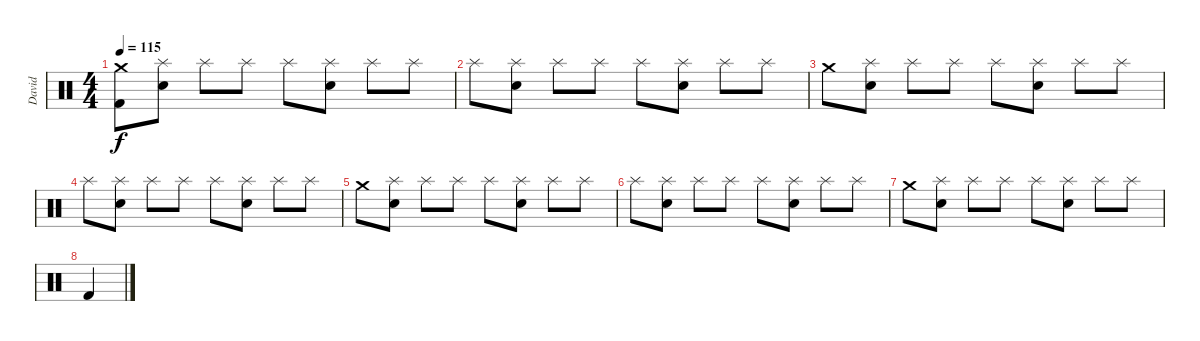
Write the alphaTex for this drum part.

\track ("David" "David") {instrument percussion}
\staff {score}
\articulation defaults
\ts (4 4)
\tempo 115
\clef neutral
\ks c
("Crash medium (hit)" "Kick (hit) 2").8{dy f} ("Splash (hit)" "Electric Snare (hit)").8 "Splash (hit)".8 "Splash (hit)".8 "Splash (hit)".8 ("Splash (hit)" "Electric Snare (hit)").8 "Splash (hit)".8 "Splash (hit)".8 |
"Splash (hit)".8 ("Splash (hit)" "Electric Snare (hit)").8 "Splash (hit)".8 "Splash (hit)".8 "Splash (hit)".8 ("Splash (hit)" "Electric Snare (hit)").8 "Splash (hit)".8 "Splash (hit)".8 |
"Crash medium (hit)".8 ("Splash (hit)" "Electric Snare (hit)").8 "Splash (hit)".8 "Splash (hit)".8 "Splash (hit)".8 ("Splash (hit)" "Electric Snare (hit)").8 "Splash (hit)".8 "Splash (hit)".8 |
"Splash (hit)".8 ("Splash (hit)" "Electric Snare (hit)").8 "Splash (hit)".8 "Splash (hit)".8 "Splash (hit)".8 ("Splash (hit)" "Electric Snare (hit)").8 "Splash (hit)".8 "Splash (hit)".8 |
"Crash medium (hit)".8 ("Splash (hit)" "Electric Snare (hit)").8 "Splash (hit)".8 "Splash (hit)".8 "Splash (hit)".8 ("Splash (hit)" "Electric Snare (hit)").8 "Splash (hit)".8 "Splash (hit)".8 |
"Splash (hit)".8 ("Splash (hit)" "Electric Snare (hit)").8 "Splash (hit)".8 "Splash (hit)".8 "Splash (hit)".8 ("Splash (hit)" "Electric Snare (hit)").8 "Splash (hit)".8 "Splash (hit)".8 |
"Crash medium (hit)".8 ("Splash (hit)" "Electric Snare (hit)").8 "Splash (hit)".8 "Splash (hit)".8 "Splash (hit)".8 ("Splash (hit)" "Electric Snare (hit)").8 "Splash (hit)".8 "Splash (hit)".8 |
"Kick (hit) 2".4
